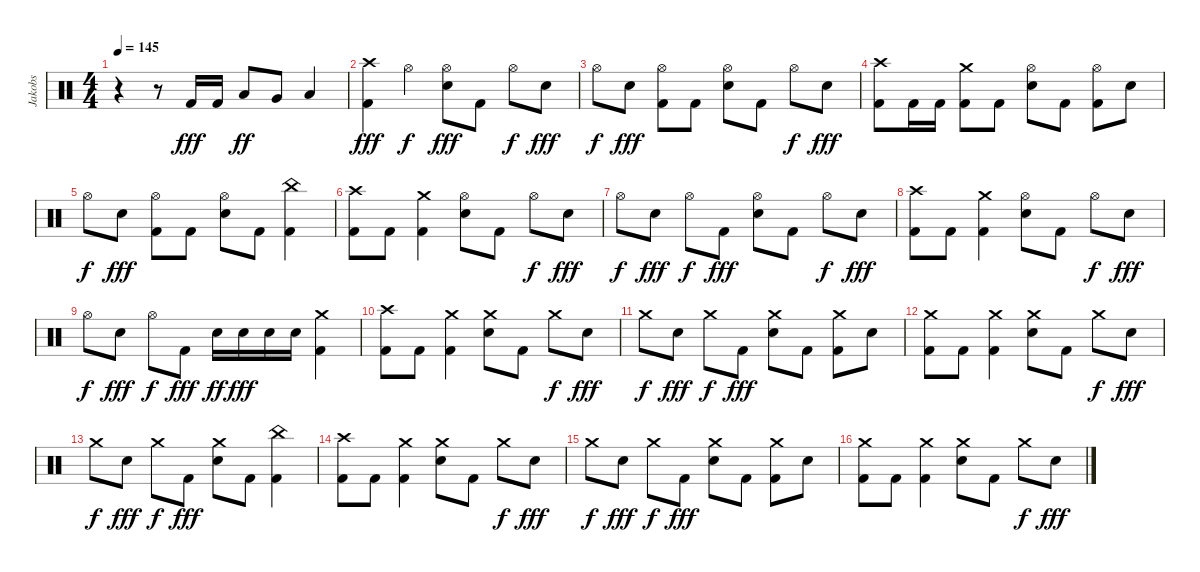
\track ("Jakobs" "Jakobs") {instrument percussion}
\staff {score}
\articulation defaults
\ts (4 4)
\tempo 145
\clef neutral
\ks c
r.4{dy fff volume 6} r.8 "Kick (hit) 2".16 "Kick (hit) 2".16 "Low Tom (hit)".8{dy ff} "Very Low Tom (hit)".8 "Low Floor Tom (hit)".4 |
("Crash high (hit)" "Kick (hit) 2").4{dy fff} "Hi-Hat (open)".4{dy f} ("Hi-Hat (open)" "Snare (hit) 2").8{dy fff} "Kick (hit) 2".8 "Hi-Hat (open)".8{dy f} "Snare (hit) 2".8{dy fff} |
"Hi-Hat (open)".8{dy f} "Snare (hit) 2".8{dy fff} ("Hi-Hat (open)" "Kick (hit) 2").8 "Kick (hit) 2".8 ("Hi-Hat (open)" "Snare (hit) 2").8 "Kick (hit) 2".8 "Hi-Hat (open)".8{dy f} "Snare (hit) 2".8{dy fff} |
("Crash high (hit)" "Kick (hit) 2").8 "Kick (hit) 2".16 "Kick (hit) 2".16 ("Crash medium (hit)" "Kick (hit) 2").8 "Kick (hit) 2".8 ("Hi-Hat (open)" "Snare (hit) 2").8 "Kick (hit) 2".8 ("Hi-Hat (open)" "Kick (hit) 2").8 "Snare (hit) 2".8 |
"Hi-Hat (open)".8{dy f} "Snare (hit) 2".8{dy fff} ("Hi-Hat (open)" "Kick (hit) 2").8 "Kick (hit) 2".8 ("Hi-Hat (open)" "Snare (hit) 2").8 "Kick (hit) 2".8 ("China (hit)" "Kick (hit) 2").4 |
("Crash high (hit)" "Kick (hit) 2").8{volume 6} "Kick (hit) 2".8 ("Crash medium (hit)" "Kick (hit) 2").4 ("Hi-Hat (open)" "Snare (hit) 2").8 "Kick (hit) 2".8 "Hi-Hat (open)".8{dy f} "Snare (hit) 2".8{dy fff} |
"Hi-Hat (open)".8{dy f} "Snare (hit) 2".8{dy fff} "Hi-Hat (open)".8{dy f} "Kick (hit) 2".8{dy fff} ("Hi-Hat (open)" "Snare (hit) 2").8 "Kick (hit) 2".8 "Hi-Hat (open)".8{dy f} "Snare (hit) 2".8{dy fff} |
("Crash high (hit)" "Kick (hit) 2").8 "Kick (hit) 2".8 ("Crash medium (hit)" "Kick (hit) 2").4 ("Hi-Hat (open)" "Snare (hit) 2").8 "Kick (hit) 2".8 "Hi-Hat (open)".8{dy f} "Snare (hit) 2".8{dy fff} |
"Hi-Hat (open)".8{dy f} "Snare (hit) 2".8{dy fff} "Hi-Hat (open)".8{dy f} "Kick (hit) 2".8{dy fff} "Snare (hit) 2".16{dy ff} "Snare (hit) 2".16{dy fff} "Snare (hit) 2".16 "Snare (hit) 2".16 ("Crash medium (hit)" "Kick (hit) 2").4 |
("Crash high (hit)" "Kick (hit) 2").8{volume 15} "Kick (hit) 2".8 ("Crash medium (hit)" "Kick (hit) 2").4 ("Crash medium (hit)" "Snare (hit) 2").8 "Kick (hit) 2".8 "Crash medium (hit)".8{dy f} "Snare (hit) 2".8{dy fff} |
"Crash medium (hit)".8{dy f} "Snare (hit) 2".8{dy fff} "Crash medium (hit)".8{dy f} "Kick (hit) 2".8{dy fff} ("Crash medium (hit)" "Snare (hit) 2").8 "Kick (hit) 2".8 ("Crash medium (hit)" "Kick (hit) 2").8 "Snare (hit) 2".8 |
("Crash medium (hit)" "Kick (hit) 2").8 "Kick (hit) 2".8 ("Crash medium (hit)" "Kick (hit) 2").4 ("Crash medium (hit)" "Snare (hit) 2").8 "Kick (hit) 2".8 "Crash medium (hit)".8{dy f} "Snare (hit) 2".8{dy fff} |
"Crash medium (hit)".8{dy f} "Snare (hit) 2".8{dy fff} "Crash medium (hit)".8{dy f} "Kick (hit) 2".8{dy fff} ("Crash medium (hit)" "Snare (hit) 2").8 "Kick (hit) 2".8 ("China (hit)" "Kick (hit) 2").4 |
("Crash high (hit)" "Kick (hit) 2").8 "Kick (hit) 2".8 ("Crash medium (hit)" "Kick (hit) 2").4 ("Crash medium (hit)" "Snare (hit) 2").8 "Kick (hit) 2".8 "Crash medium (hit)".8{dy f} "Snare (hit) 2".8{dy fff} |
"Crash medium (hit)".8{dy f} "Snare (hit) 2".8{dy fff} "Crash medium (hit)".8{dy f} "Kick (hit) 2".8{dy fff} ("Crash medium (hit)" "Snare (hit) 2").8 "Kick (hit) 2".8 ("Crash medium (hit)" "Kick (hit) 2").8 "Snare (hit) 2".8 |
("Crash medium (hit)" "Kick (hit) 2").8 "Kick (hit) 2".8 ("Crash medium (hit)" "Kick (hit) 2").4 ("Crash medium (hit)" "Snare (hit) 2").8 "Kick (hit) 2".8 "Crash medium (hit)".8{dy f} "Snare (hit) 2".8{dy fff}
